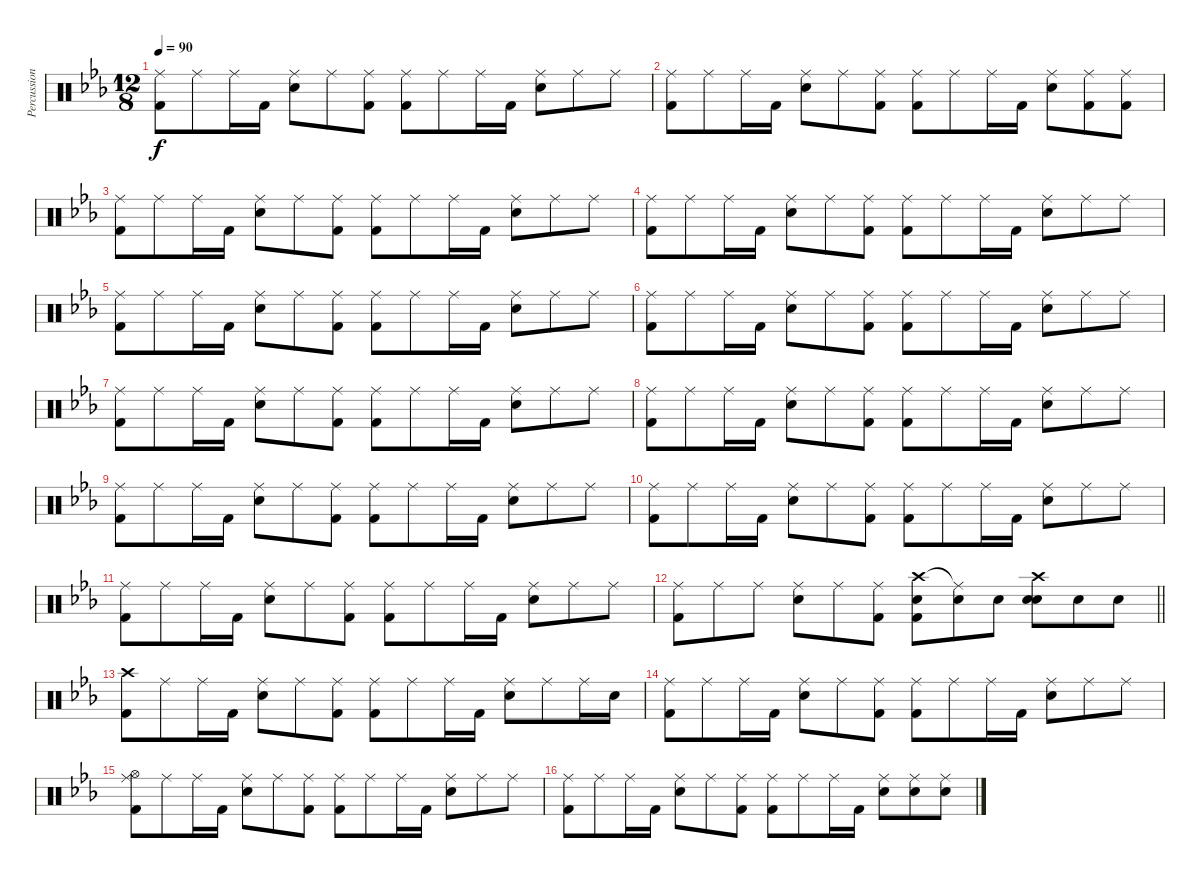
\track ("Percussion" "Percussion") {instrument percussion}
\staff {score}
\articulation defaults
\ts (12 8)
\tempo 90
\clef neutral
\ks eb
("Ride (middle)" "Kick (hit) 2").8{dy f} "Ride (middle)".8 "Ride (middle)".16 "Kick (hit) 2".16 ("Ride (middle)" "Snare (hit) 2").8 "Ride (middle)".8 ("Ride (middle)" "Kick (hit) 2").8 ("Ride (middle)" "Kick (hit) 2").8 "Ride (middle)".8 "Ride (middle)".16 "Kick (hit) 2".16 ("Ride (middle)" "Snare (hit) 2").8 "Ride (middle)".8 "Ride (middle)".8 |
("Ride (middle)" "Kick (hit) 2").8 "Ride (middle)".8 "Ride (middle)".16 "Kick (hit) 2".16 ("Ride (middle)" "Snare (hit) 2").8 "Ride (middle)".8 ("Ride (middle)" "Kick (hit) 2").8 ("Ride (middle)" "Kick (hit) 2").8 "Ride (middle)".8 "Ride (middle)".16 "Kick (hit) 2".16 ("Ride (middle)" "Snare (hit) 2").8 ("Ride (middle)" "Kick (hit) 2").8 ("Ride (middle)" "Kick (hit) 2").8 |
("Ride (middle)" "Kick (hit) 2").8 "Ride (middle)".8 "Ride (middle)".16 "Kick (hit) 2".16 ("Ride (middle)" "Snare (hit) 2").8 "Ride (middle)".8 ("Ride (middle)" "Kick (hit) 2").8 ("Ride (middle)" "Kick (hit) 2").8 "Ride (middle)".8 "Ride (middle)".16 "Kick (hit) 2".16 ("Ride (middle)" "Snare (hit) 2").8 "Ride (middle)".8 "Ride (middle)".8 |
("Ride (middle)" "Kick (hit) 2").8 "Ride (middle)".8 "Ride (middle)".16 "Kick (hit) 2".16 ("Ride (middle)" "Snare (hit) 2").8 "Ride (middle)".8 ("Ride (middle)" "Kick (hit) 2").8 ("Ride (middle)" "Kick (hit) 2").8 "Ride (middle)".8 "Ride (middle)".16 "Kick (hit) 2".16 ("Ride (middle)" "Snare (hit) 2").8 "Ride (middle)".8 "Ride (middle)".8 |
("Ride (middle)" "Kick (hit) 2").8 "Ride (middle)".8 "Ride (middle)".16 "Kick (hit) 2".16 ("Ride (middle)" "Snare (hit) 2").8 "Ride (middle)".8 ("Ride (middle)" "Kick (hit) 2").8 ("Ride (middle)" "Kick (hit) 2").8 "Ride (middle)".8 "Ride (middle)".16 "Kick (hit) 2".16 ("Ride (middle)" "Snare (hit) 2").8 "Ride (middle)".8 "Ride (middle)".8 |
("Ride (middle)" "Kick (hit) 2").8 "Ride (middle)".8 "Ride (middle)".16 "Kick (hit) 2".16 ("Ride (middle)" "Snare (hit) 2").8 "Ride (middle)".8 ("Ride (middle)" "Kick (hit) 2").8 ("Ride (middle)" "Kick (hit) 2").8 "Ride (middle)".8 "Ride (middle)".16 "Kick (hit) 2".16 ("Ride (middle)" "Snare (hit) 2").8 "Ride (middle)".8 "Ride (middle)".8 |
("Ride (middle)" "Kick (hit) 2").8 "Ride (middle)".8 "Ride (middle)".16 "Kick (hit) 2".16 ("Ride (middle)" "Snare (hit) 2").8 "Ride (middle)".8 ("Ride (middle)" "Kick (hit) 2").8 ("Ride (middle)" "Kick (hit) 2").8 "Ride (middle)".8 "Ride (middle)".16 "Kick (hit) 2".16 ("Ride (middle)" "Snare (hit) 2").8 "Ride (middle)".8 "Ride (middle)".8 |
("Ride (middle)" "Kick (hit) 2").8 "Ride (middle)".8 "Ride (middle)".16 "Kick (hit) 2".16 ("Ride (middle)" "Snare (hit) 2").8 "Ride (middle)".8 ("Ride (middle)" "Kick (hit) 2").8 ("Ride (middle)" "Kick (hit) 2").8 "Ride (middle)".8 "Ride (middle)".16 "Kick (hit) 2".16 ("Ride (middle)" "Snare (hit) 2").8 "Ride (middle)".8 "Ride (middle)".8 |
("Ride (middle)" "Kick (hit) 2").8 "Ride (middle)".8 "Ride (middle)".16 "Kick (hit) 2".16 ("Ride (middle)" "Snare (hit) 2").8 "Ride (middle)".8 ("Ride (middle)" "Kick (hit) 2").8 ("Ride (middle)" "Kick (hit) 2").8 "Ride (middle)".8 "Ride (middle)".16 "Kick (hit) 2".16 ("Ride (middle)" "Snare (hit) 2").8 "Ride (middle)".8 "Ride (middle)".8 |
("Ride (middle)" "Kick (hit) 2").8 "Ride (middle)".8 "Ride (middle)".16 "Kick (hit) 2".16 ("Ride (middle)" "Snare (hit) 2").8 "Ride (middle)".8 ("Ride (middle)" "Kick (hit) 2").8 ("Ride (middle)" "Kick (hit) 2").8 "Ride (middle)".8 "Ride (middle)".16 "Kick (hit) 2".16 ("Ride (middle)" "Snare (hit) 2").8 "Ride (middle)".8 "Ride (middle)".8 |
("Ride (middle)" "Kick (hit) 2").8 "Ride (middle)".8 "Ride (middle)".16 "Kick (hit) 2".16 ("Ride (middle)" "Snare (hit) 2").8 "Ride (middle)".8 ("Ride (middle)" "Kick (hit) 2").8 ("Ride (middle)" "Kick (hit) 2").8 "Ride (middle)".8 "Ride (middle)".16 "Kick (hit) 2".16 ("Ride (middle)" "Snare (hit) 2").8 "Ride (middle)".8 "Ride (middle)".8 |
\barLineRight lightlight
("Ride (middle)" "Kick (hit) 2").8 "Ride (middle)".8 "Ride (middle)".8 ("Ride (middle)" "Snare (hit) 2").8 "Ride (middle)".8 ("Ride (middle)" "Kick (hit) 2").8 ("Crash high (hit)" "Snare (hit) 2" "Kick (hit) 2").8 ("Ride (middle)"{t} "Snare (hit) 2").8 "Snare (hit) 2".8 ("Crash high (hit)" "Snare (hit) 2" "Snare (hit) 2").8 "Snare (hit) 2".8 "Snare (hit) 2".8 |
("Crash high (hit)" "Kick (hit) 2").8 "Ride (middle)".8 "Ride (middle)".16 "Kick (hit) 2".16 ("Ride (middle)" "Snare (hit) 2").8 "Ride (middle)".8 ("Ride (middle)" "Kick (hit) 2").8 ("Ride (middle)" "Kick (hit) 2").8 "Ride (middle)".8 "Ride (middle)".16 "Kick (hit) 2".16 ("Ride (middle)" "Snare (hit) 2").8 "Ride (middle)".8 "Ride (middle)".16 "Snare (hit) 2".16 |
("Ride (middle)" "Kick (hit) 2").8 "Ride (middle)".8 "Ride (middle)".16 "Kick (hit) 2".16 ("Ride (middle)" "Snare (hit) 2").8 "Ride (middle)".8 ("Ride (middle)" "Kick (hit) 2").8 ("Ride (middle)" "Kick (hit) 2").8 "Ride (middle)".8 "Ride (middle)".16 "Kick (hit) 2".16 ("Ride (middle)" "Snare (hit) 2").8 "Ride (middle)".8 "Ride (middle)".8 |
("Ride (middle)" "Hi-Hat (open)" "Kick (hit) 2").8 "Ride (middle)".8 "Ride (middle)".16 "Kick (hit) 2".16 ("Ride (middle)" "Snare (hit) 2").8 "Ride (middle)".8 ("Ride (middle)" "Kick (hit) 2").8 ("Ride (middle)" "Kick (hit) 2").8 "Ride (middle)".8 "Ride (middle)".16 "Kick (hit) 2".16 ("Ride (middle)" "Snare (hit) 2").8 "Ride (middle)".8 "Ride (middle)".8 |
("Ride (middle)" "Kick (hit) 2").8 "Ride (middle)".8 "Ride (middle)".16 "Kick (hit) 2".16 ("Ride (middle)" "Snare (hit) 2").8 "Ride (middle)".8 ("Ride (middle)" "Kick (hit) 2").8 ("Ride (middle)" "Kick (hit) 2").8 "Ride (middle)".8 "Ride (middle)".16 "Kick (hit) 2".16 ("Ride (middle)" "Snare (hit) 2").8 ("Ride (middle)" "Snare (hit) 2").8 ("Ride (middle)" "Snare (hit) 2").8
